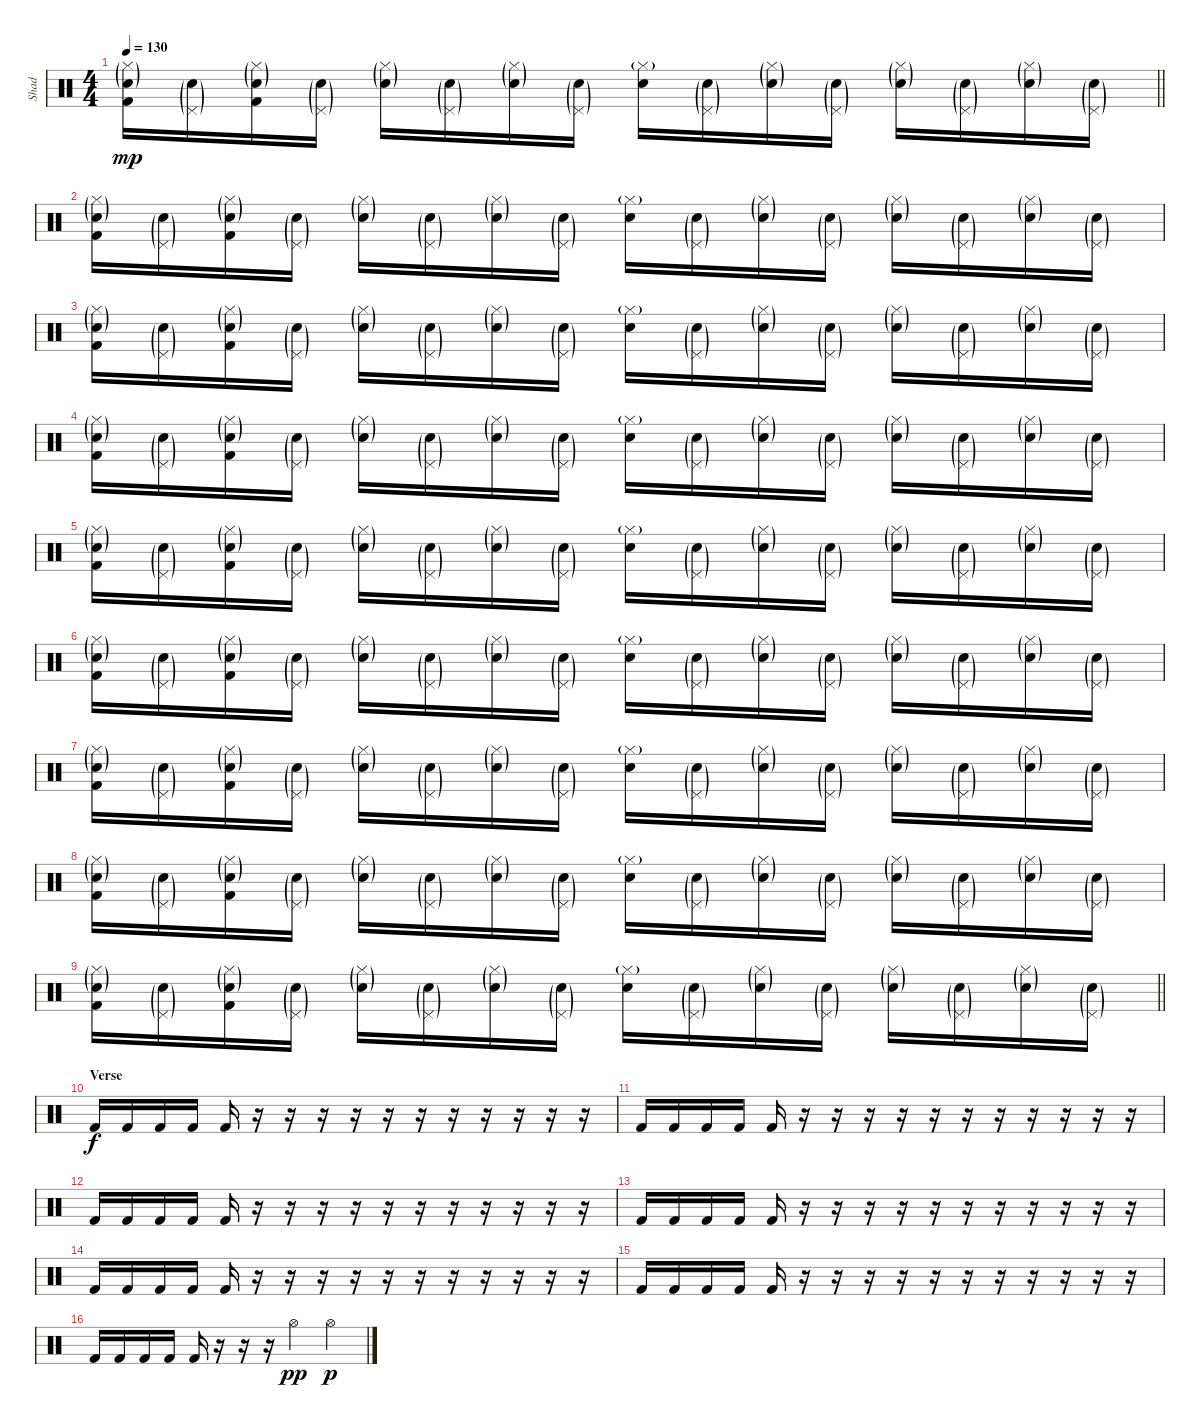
\track ("Shad" "Shad") {instrument percussion}
\staff {score}
\articulation defaults
\ts (4 4)
\tempo 130
\clef neutral
\barLineRight lightlight
\ks c
("Hi-Hat (closed)"{g} "Electric Snare (hit)"{g} "Kick (hit) 2").16{dy mp} ("Pedal Hi-Hat (hit)"{g} "Electric Snare (hit)"{g}).16 ("Hi-Hat (closed)"{g} "Electric Snare (hit)"{g} "Kick (hit) 2").16 ("Pedal Hi-Hat (hit)"{g} "Electric Snare (hit)"{g}).16 ("Hi-Hat (closed)"{g} "Electric Snare (hit)"{g}).16 ("Pedal Hi-Hat (hit)"{g} "Electric Snare (hit)"{g}).16 ("Hi-Hat (closed)"{g} "Electric Snare (hit)"{g}).16 ("Pedal Hi-Hat (hit)"{g} "Electric Snare (hit)"{g}).16 ("Hi-Hat (closed)"{g} "Electric Snare (hit)").16 ("Pedal Hi-Hat (hit)"{g} "Electric Snare (hit)"{g}).16 ("Hi-Hat (closed)"{g} "Electric Snare (hit)"{g}).16 ("Pedal Hi-Hat (hit)"{g} "Electric Snare (hit)"{g}).16 ("Hi-Hat (closed)"{g} "Electric Snare (hit)"{g}).16 ("Pedal Hi-Hat (hit)"{g} "Electric Snare (hit)"{g}).16 ("Hi-Hat (closed)"{g} "Electric Snare (hit)"{g}).16 ("Pedal Hi-Hat (hit)"{g} "Electric Snare (hit)"{g}).16 |
("Hi-Hat (closed)"{g} "Electric Snare (hit)"{g} "Kick (hit) 2").16 ("Pedal Hi-Hat (hit)"{g} "Electric Snare (hit)"{g}).16 ("Hi-Hat (closed)"{g} "Electric Snare (hit)"{g} "Kick (hit) 2").16 ("Pedal Hi-Hat (hit)"{g} "Electric Snare (hit)"{g}).16 ("Hi-Hat (closed)"{g} "Electric Snare (hit)"{g}).16 ("Pedal Hi-Hat (hit)"{g} "Electric Snare (hit)"{g}).16 ("Hi-Hat (closed)"{g} "Electric Snare (hit)"{g}).16 ("Pedal Hi-Hat (hit)"{g} "Electric Snare (hit)"{g}).16 ("Hi-Hat (closed)"{g} "Electric Snare (hit)").16 ("Pedal Hi-Hat (hit)"{g} "Electric Snare (hit)"{g}).16 ("Hi-Hat (closed)"{g} "Electric Snare (hit)"{g}).16 ("Pedal Hi-Hat (hit)"{g} "Electric Snare (hit)"{g}).16 ("Hi-Hat (closed)"{g} "Electric Snare (hit)"{g}).16 ("Pedal Hi-Hat (hit)"{g} "Electric Snare (hit)"{g}).16 ("Hi-Hat (closed)"{g} "Electric Snare (hit)"{g}).16 ("Pedal Hi-Hat (hit)"{g} "Electric Snare (hit)"{g}).16 |
("Hi-Hat (closed)"{g} "Electric Snare (hit)"{g} "Kick (hit) 2").16 ("Pedal Hi-Hat (hit)"{g} "Electric Snare (hit)"{g}).16 ("Hi-Hat (closed)"{g} "Electric Snare (hit)"{g} "Kick (hit) 2").16 ("Pedal Hi-Hat (hit)"{g} "Electric Snare (hit)"{g}).16 ("Hi-Hat (closed)"{g} "Electric Snare (hit)"{g}).16 ("Pedal Hi-Hat (hit)"{g} "Electric Snare (hit)"{g}).16 ("Hi-Hat (closed)"{g} "Electric Snare (hit)"{g}).16 ("Pedal Hi-Hat (hit)"{g} "Electric Snare (hit)"{g}).16 ("Hi-Hat (closed)"{g} "Electric Snare (hit)").16 ("Pedal Hi-Hat (hit)"{g} "Electric Snare (hit)"{g}).16 ("Hi-Hat (closed)"{g} "Electric Snare (hit)"{g}).16 ("Pedal Hi-Hat (hit)"{g} "Electric Snare (hit)"{g}).16 ("Hi-Hat (closed)"{g} "Electric Snare (hit)"{g}).16 ("Pedal Hi-Hat (hit)"{g} "Electric Snare (hit)"{g}).16 ("Hi-Hat (closed)"{g} "Electric Snare (hit)"{g}).16 ("Pedal Hi-Hat (hit)"{g} "Electric Snare (hit)"{g}).16 |
("Hi-Hat (closed)"{g} "Electric Snare (hit)"{g} "Kick (hit) 2").16 ("Pedal Hi-Hat (hit)"{g} "Electric Snare (hit)"{g}).16 ("Hi-Hat (closed)"{g} "Electric Snare (hit)"{g} "Kick (hit) 2").16 ("Pedal Hi-Hat (hit)"{g} "Electric Snare (hit)"{g}).16 ("Hi-Hat (closed)"{g} "Electric Snare (hit)"{g}).16 ("Pedal Hi-Hat (hit)"{g} "Electric Snare (hit)"{g}).16 ("Hi-Hat (closed)"{g} "Electric Snare (hit)"{g}).16 ("Pedal Hi-Hat (hit)"{g} "Electric Snare (hit)"{g}).16 ("Hi-Hat (closed)"{g} "Electric Snare (hit)").16 ("Pedal Hi-Hat (hit)"{g} "Electric Snare (hit)"{g}).16 ("Hi-Hat (closed)"{g} "Electric Snare (hit)"{g}).16 ("Pedal Hi-Hat (hit)"{g} "Electric Snare (hit)"{g}).16 ("Hi-Hat (closed)"{g} "Electric Snare (hit)"{g}).16 ("Pedal Hi-Hat (hit)"{g} "Electric Snare (hit)"{g}).16 ("Hi-Hat (closed)"{g} "Electric Snare (hit)"{g}).16 ("Pedal Hi-Hat (hit)"{g} "Electric Snare (hit)"{g}).16 |
("Hi-Hat (closed)"{g} "Electric Snare (hit)"{g} "Kick (hit) 2").16 ("Pedal Hi-Hat (hit)"{g} "Electric Snare (hit)"{g}).16 ("Hi-Hat (closed)"{g} "Electric Snare (hit)"{g} "Kick (hit) 2").16 ("Pedal Hi-Hat (hit)"{g} "Electric Snare (hit)"{g}).16 ("Hi-Hat (closed)"{g} "Electric Snare (hit)"{g}).16 ("Pedal Hi-Hat (hit)"{g} "Electric Snare (hit)"{g}).16 ("Hi-Hat (closed)"{g} "Electric Snare (hit)"{g}).16 ("Pedal Hi-Hat (hit)"{g} "Electric Snare (hit)"{g}).16 ("Hi-Hat (closed)"{g} "Electric Snare (hit)").16 ("Pedal Hi-Hat (hit)"{g} "Electric Snare (hit)"{g}).16 ("Hi-Hat (closed)"{g} "Electric Snare (hit)"{g}).16 ("Pedal Hi-Hat (hit)"{g} "Electric Snare (hit)"{g}).16 ("Hi-Hat (closed)"{g} "Electric Snare (hit)"{g}).16 ("Pedal Hi-Hat (hit)"{g} "Electric Snare (hit)"{g}).16 ("Hi-Hat (closed)"{g} "Electric Snare (hit)"{g}).16 ("Pedal Hi-Hat (hit)"{g} "Electric Snare (hit)"{g}).16 |
("Hi-Hat (closed)"{g} "Electric Snare (hit)"{g} "Kick (hit) 2").16 ("Pedal Hi-Hat (hit)"{g} "Electric Snare (hit)"{g}).16 ("Hi-Hat (closed)"{g} "Electric Snare (hit)"{g} "Kick (hit) 2").16 ("Pedal Hi-Hat (hit)"{g} "Electric Snare (hit)"{g}).16 ("Hi-Hat (closed)"{g} "Electric Snare (hit)"{g}).16 ("Pedal Hi-Hat (hit)"{g} "Electric Snare (hit)"{g}).16 ("Hi-Hat (closed)"{g} "Electric Snare (hit)"{g}).16 ("Pedal Hi-Hat (hit)"{g} "Electric Snare (hit)"{g}).16 ("Hi-Hat (closed)"{g} "Electric Snare (hit)").16 ("Pedal Hi-Hat (hit)"{g} "Electric Snare (hit)"{g}).16 ("Hi-Hat (closed)"{g} "Electric Snare (hit)"{g}).16 ("Pedal Hi-Hat (hit)"{g} "Electric Snare (hit)"{g}).16 ("Hi-Hat (closed)"{g} "Electric Snare (hit)"{g}).16 ("Pedal Hi-Hat (hit)"{g} "Electric Snare (hit)"{g}).16 ("Hi-Hat (closed)"{g} "Electric Snare (hit)"{g}).16 ("Pedal Hi-Hat (hit)"{g} "Electric Snare (hit)"{g}).16 |
("Hi-Hat (closed)"{g} "Electric Snare (hit)"{g} "Kick (hit) 2").16 ("Pedal Hi-Hat (hit)"{g} "Electric Snare (hit)"{g}).16 ("Hi-Hat (closed)"{g} "Electric Snare (hit)"{g} "Kick (hit) 2").16 ("Pedal Hi-Hat (hit)"{g} "Electric Snare (hit)"{g}).16 ("Hi-Hat (closed)"{g} "Electric Snare (hit)"{g}).16 ("Pedal Hi-Hat (hit)"{g} "Electric Snare (hit)"{g}).16 ("Hi-Hat (closed)"{g} "Electric Snare (hit)"{g}).16 ("Pedal Hi-Hat (hit)"{g} "Electric Snare (hit)"{g}).16 ("Hi-Hat (closed)"{g} "Electric Snare (hit)").16 ("Pedal Hi-Hat (hit)"{g} "Electric Snare (hit)"{g}).16 ("Hi-Hat (closed)"{g} "Electric Snare (hit)"{g}).16 ("Pedal Hi-Hat (hit)"{g} "Electric Snare (hit)"{g}).16 ("Hi-Hat (closed)"{g} "Electric Snare (hit)"{g}).16 ("Pedal Hi-Hat (hit)"{g} "Electric Snare (hit)"{g}).16 ("Hi-Hat (closed)"{g} "Electric Snare (hit)"{g}).16 ("Pedal Hi-Hat (hit)"{g} "Electric Snare (hit)"{g}).16 |
("Hi-Hat (closed)"{g} "Electric Snare (hit)"{g} "Kick (hit) 2").16 ("Pedal Hi-Hat (hit)"{g} "Electric Snare (hit)"{g}).16 ("Hi-Hat (closed)"{g} "Electric Snare (hit)"{g} "Kick (hit) 2").16 ("Pedal Hi-Hat (hit)"{g} "Electric Snare (hit)"{g}).16 ("Hi-Hat (closed)"{g} "Electric Snare (hit)"{g}).16 ("Pedal Hi-Hat (hit)"{g} "Electric Snare (hit)"{g}).16 ("Hi-Hat (closed)"{g} "Electric Snare (hit)"{g}).16 ("Pedal Hi-Hat (hit)"{g} "Electric Snare (hit)"{g}).16 ("Hi-Hat (closed)"{g} "Electric Snare (hit)").16 ("Pedal Hi-Hat (hit)"{g} "Electric Snare (hit)"{g}).16 ("Hi-Hat (closed)"{g} "Electric Snare (hit)"{g}).16 ("Pedal Hi-Hat (hit)"{g} "Electric Snare (hit)"{g}).16 ("Hi-Hat (closed)"{g} "Electric Snare (hit)"{g}).16 ("Pedal Hi-Hat (hit)"{g} "Electric Snare (hit)"{g}).16 ("Hi-Hat (closed)"{g} "Electric Snare (hit)"{g}).16 ("Pedal Hi-Hat (hit)"{g} "Electric Snare (hit)"{g}).16 |
\barLineRight lightlight
("Hi-Hat (closed)"{g} "Electric Snare (hit)"{g} "Kick (hit) 2").16 ("Pedal Hi-Hat (hit)"{g} "Electric Snare (hit)"{g}).16 ("Hi-Hat (closed)"{g} "Electric Snare (hit)"{g} "Kick (hit) 2").16 ("Pedal Hi-Hat (hit)"{g} "Electric Snare (hit)"{g}).16 ("Hi-Hat (closed)"{g} "Electric Snare (hit)"{g}).16 ("Pedal Hi-Hat (hit)"{g} "Electric Snare (hit)"{g}).16 ("Hi-Hat (closed)"{g} "Electric Snare (hit)"{g}).16 ("Pedal Hi-Hat (hit)"{g} "Electric Snare (hit)"{g}).16 ("Hi-Hat (closed)"{g} "Electric Snare (hit)").16 ("Pedal Hi-Hat (hit)"{g} "Electric Snare (hit)"{g}).16 ("Hi-Hat (closed)"{g} "Electric Snare (hit)"{g}).16 ("Pedal Hi-Hat (hit)"{g} "Electric Snare (hit)"{g}).16 ("Hi-Hat (closed)"{g} "Electric Snare (hit)"{g}).16 ("Pedal Hi-Hat (hit)"{g} "Electric Snare (hit)"{g}).16 ("Hi-Hat (closed)"{g} "Electric Snare (hit)"{g}).16 ("Pedal Hi-Hat (hit)"{g} "Electric Snare (hit)"{g}).16 |
\section ("" "Verse")
"Kick (hit) 2".16{dy f} "Kick (hit) 2".16 "Kick (hit) 2".16 "Kick (hit) 2".16 "Kick (hit) 2".16 r.16 r.16 r.16 r.16 r.16 r.16 r.16 r.16 r.16 r.16 r.16 |
"Kick (hit) 2".16 "Kick (hit) 2".16 "Kick (hit) 2".16 "Kick (hit) 2".16 "Kick (hit) 2".16 r.16 r.16 r.16 r.16 r.16 r.16 r.16 r.16 r.16 r.16 r.16 |
"Kick (hit) 2".16 "Kick (hit) 2".16 "Kick (hit) 2".16 "Kick (hit) 2".16 "Kick (hit) 2".16 r.16 r.16 r.16 r.16 r.16 r.16 r.16 r.16 r.16 r.16 r.16 |
"Kick (hit) 2".16 "Kick (hit) 2".16 "Kick (hit) 2".16 "Kick (hit) 2".16 "Kick (hit) 2".16 r.16 r.16 r.16 r.16 r.16 r.16 r.16 r.16 r.16 r.16 r.16 |
"Kick (hit) 2".16 "Kick (hit) 2".16 "Kick (hit) 2".16 "Kick (hit) 2".16 "Kick (hit) 2".16 r.16 r.16 r.16 r.16 r.16 r.16 r.16 r.16 r.16 r.16 r.16 |
"Kick (hit) 2".16 "Kick (hit) 2".16 "Kick (hit) 2".16 "Kick (hit) 2".16 "Kick (hit) 2".16 r.16 r.16 r.16 r.16 r.16 r.16 r.16 r.16 r.16 r.16 r.16 |
"Kick (hit) 2".16 "Kick (hit) 2".16 "Kick (hit) 2".16 "Kick (hit) 2".16 "Kick (hit) 2".16 r.16 r.16 r.16 "Hi-Hat (open)".4{dy pp} "Hi-Hat (open)".4{dy p}
